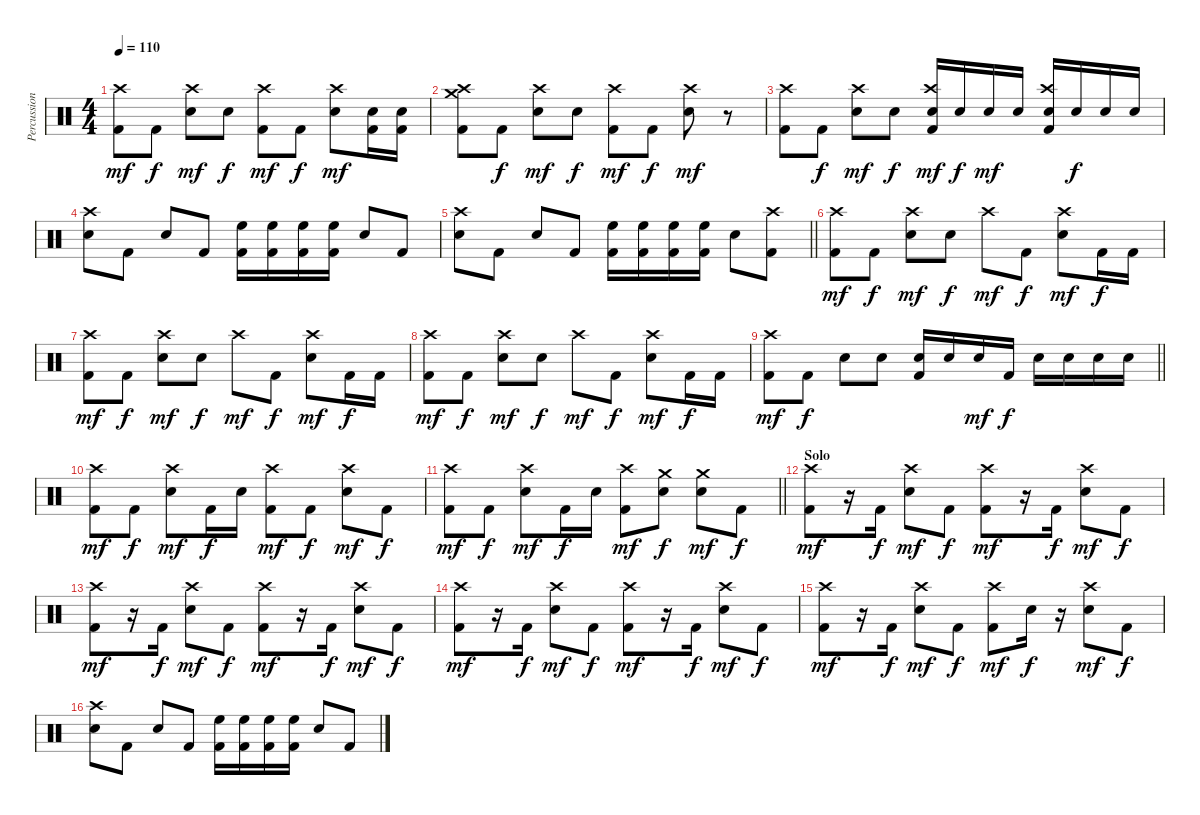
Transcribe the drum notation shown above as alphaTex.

\track ("Percussion" "Percussion") {instrument percussion}
\staff {score}
\articulation defaults
\ts (4 4)
\tempo 110
\clef neutral
\ks c
("Kick (hit) 2" "Crash high (hit)").8{dy mf} "Kick (hit) 2".8{dy f} ("Electric Snare (hit)" "Crash high (hit)").8{dy mf} "Electric Snare (hit)".8{dy f} ("Kick (hit) 2" "Crash high (hit)").8{dy mf} "Kick (hit) 2".8{dy f} ("Electric Snare (hit)" "Crash high (hit)").8{dy mf} ("Kick (hit) 2" "Electric Snare (hit)").16 ("Kick (hit) 2" "Electric Snare (hit)").16 |
("Kick (hit) 2" "Crash high (hit)" "Crash medium (hit)").8 "Kick (hit) 2".8{dy f} ("Electric Snare (hit)" "Crash high (hit)").8{dy mf} "Electric Snare (hit)".8{dy f} ("Kick (hit) 2" "Crash high (hit)").8{dy mf} "Kick (hit) 2".8{dy f} ("Electric Snare (hit)" "Crash high (hit)").8{dy mf} r.8 |
("Kick (hit) 2" "Crash high (hit)").8 "Kick (hit) 2".8{dy f} ("Electric Snare (hit)" "Crash high (hit)").8{dy mf} "Electric Snare (hit)".8{dy f} ("Kick (hit) 2" "Electric Snare (hit)" "Crash high (hit)").16{dy mf} "Electric Snare (hit)".16{dy f} "Electric Snare (hit)".16{dy mf} "Electric Snare (hit)".16 ("Kick (hit) 2" "Electric Snare (hit)" "Crash high (hit)").16 "Electric Snare (hit)".16{dy f} "Electric Snare (hit)".16 "Electric Snare (hit)".16 |
("Electric Snare (hit)" "Crash high (hit)").8 "Kick (hit) 2".8 "Electric Snare (hit)".8 "Kick (hit) 2".8 ("Kick (hit) 2" "High Floor Tom (hit)").16 ("Kick (hit) 2" "High Floor Tom (hit)").16 ("Kick (hit) 2" "High Floor Tom (hit)").16 ("Kick (hit) 2" "High Floor Tom (hit)").16 "Electric Snare (hit)".8 "Kick (hit) 2".8 |
\barLineRight lightlight
("Electric Snare (hit)" "Crash high (hit)").8 "Kick (hit) 2".8 "Electric Snare (hit)".8 "Kick (hit) 2".8 ("Kick (hit) 2" "High Floor Tom (hit)").16 ("Kick (hit) 2" "High Floor Tom (hit)").16 ("Kick (hit) 2" "High Floor Tom (hit)").16 ("Kick (hit) 2" "High Floor Tom (hit)").16 "Electric Snare (hit)".8 ("Kick (hit) 2" "Crash high (hit)").8 |
("Kick (hit) 2" "Crash high (hit)").8{dy mf} "Kick (hit) 2".8{dy f} ("Electric Snare (hit)" "Crash high (hit)").8{dy mf} "Electric Snare (hit)".8{dy f} "Crash high (hit)".8{dy mf} "Kick (hit) 2".8{dy f} ("Electric Snare (hit)" "Crash high (hit)").8{dy mf} "Kick (hit) 2".16{dy f} "Kick (hit) 2".16 |
("Kick (hit) 2" "Crash high (hit)").8{dy mf} "Kick (hit) 2".8{dy f} ("Electric Snare (hit)" "Crash high (hit)").8{dy mf} "Electric Snare (hit)".8{dy f} "Crash high (hit)".8{dy mf} "Kick (hit) 2".8{dy f} ("Electric Snare (hit)" "Crash high (hit)").8{dy mf} "Kick (hit) 2".16{dy f} "Kick (hit) 2".16 |
("Kick (hit) 2" "Crash high (hit)").8{dy mf} "Kick (hit) 2".8{dy f} ("Electric Snare (hit)" "Crash high (hit)").8{dy mf} "Electric Snare (hit)".8{dy f} "Crash high (hit)".8{dy mf} "Kick (hit) 2".8{dy f} ("Electric Snare (hit)" "Crash high (hit)").8{dy mf} "Kick (hit) 2".16{dy f} "Kick (hit) 2".16 |
\barLineRight lightlight
("Kick (hit) 2" "Crash high (hit)").8{dy mf} "Kick (hit) 2".8{dy f} "Electric Snare (hit)".8 "Electric Snare (hit)".8 ("Kick (hit) 2" "Electric Snare (hit)").16 "Electric Snare (hit)".16 "Electric Snare (hit)".16{dy mf} "Kick (hit) 2".16{dy f} "Electric Snare (hit)".16 "Electric Snare (hit)".16 "Electric Snare (hit)".16 "Electric Snare (hit)".16 |
("Kick (hit) 2" "Crash high (hit)").8{dy mf} "Kick (hit) 2".8{dy f} ("Electric Snare (hit)" "Crash high (hit)").8{dy mf} "Kick (hit) 2".16{dy f} "Electric Snare (hit)".16 ("Kick (hit) 2" "Crash high (hit)").8{dy mf} "Kick (hit) 2".8{dy f} ("Electric Snare (hit)" "Crash high (hit)").8{dy mf} "Kick (hit) 2".8{dy f} |
\barLineRight lightlight
("Kick (hit) 2" "Crash high (hit)").8{dy mf} "Kick (hit) 2".8{dy f} ("Electric Snare (hit)" "Crash high (hit)").8{dy mf} "Kick (hit) 2".16{dy f} "Electric Snare (hit)".16 ("Kick (hit) 2" "Crash high (hit)").8{dy mf} ("Electric Snare (hit)" "Crash medium (hit)").8{dy f} ("Electric Snare (hit)" "Crash medium (hit)").8{dy mf} "Kick (hit) 2".8{dy f} |
\section ("" "Solo")
("Kick (hit) 2" "Crash high (hit)").8{dy mf} r.16 "Kick (hit) 2".16{dy f} ("Electric Snare (hit)" "Crash high (hit)").8{dy mf} "Kick (hit) 2".8{dy f} ("Kick (hit) 2" "Crash high (hit)").8{dy mf} r.16 "Kick (hit) 2".16{dy f} ("Electric Snare (hit)" "Crash high (hit)").8{dy mf} "Kick (hit) 2".8{dy f} |
("Kick (hit) 2" "Crash high (hit)").8{dy mf} r.16 "Kick (hit) 2".16{dy f} ("Electric Snare (hit)" "Crash high (hit)").8{dy mf} "Kick (hit) 2".8{dy f} ("Kick (hit) 2" "Crash high (hit)").8{dy mf} r.16 "Kick (hit) 2".16{dy f} ("Electric Snare (hit)" "Crash high (hit)").8{dy mf} "Kick (hit) 2".8{dy f} |
("Kick (hit) 2" "Crash high (hit)").8{dy mf} r.16 "Kick (hit) 2".16{dy f} ("Electric Snare (hit)" "Crash high (hit)").8{dy mf} "Kick (hit) 2".8{dy f} ("Kick (hit) 2" "Crash high (hit)").8{dy mf} r.16 "Kick (hit) 2".16{dy f} ("Electric Snare (hit)" "Crash high (hit)").8{dy mf} "Kick (hit) 2".8{dy f} |
("Kick (hit) 2" "Crash high (hit)").8{dy mf} r.16 "Kick (hit) 2".16{dy f} ("Electric Snare (hit)" "Crash high (hit)").8{dy mf} "Kick (hit) 2".8{dy f} ("Kick (hit) 2" "Crash high (hit)").8{dy mf} "Electric Snare (hit)".16{dy f} r.16 ("Electric Snare (hit)" "Crash high (hit)").8{dy mf} "Kick (hit) 2".8{dy f} |
("Electric Snare (hit)" "Crash high (hit)").8 "Kick (hit) 2".8 "Electric Snare (hit)".8 "Kick (hit) 2".8 ("Kick (hit) 2" "High Floor Tom (hit)").16 ("Kick (hit) 2" "High Floor Tom (hit)").16 ("Kick (hit) 2" "High Floor Tom (hit)").16 ("Kick (hit) 2" "High Floor Tom (hit)").16 "Electric Snare (hit)".8 "Kick (hit) 2".8
